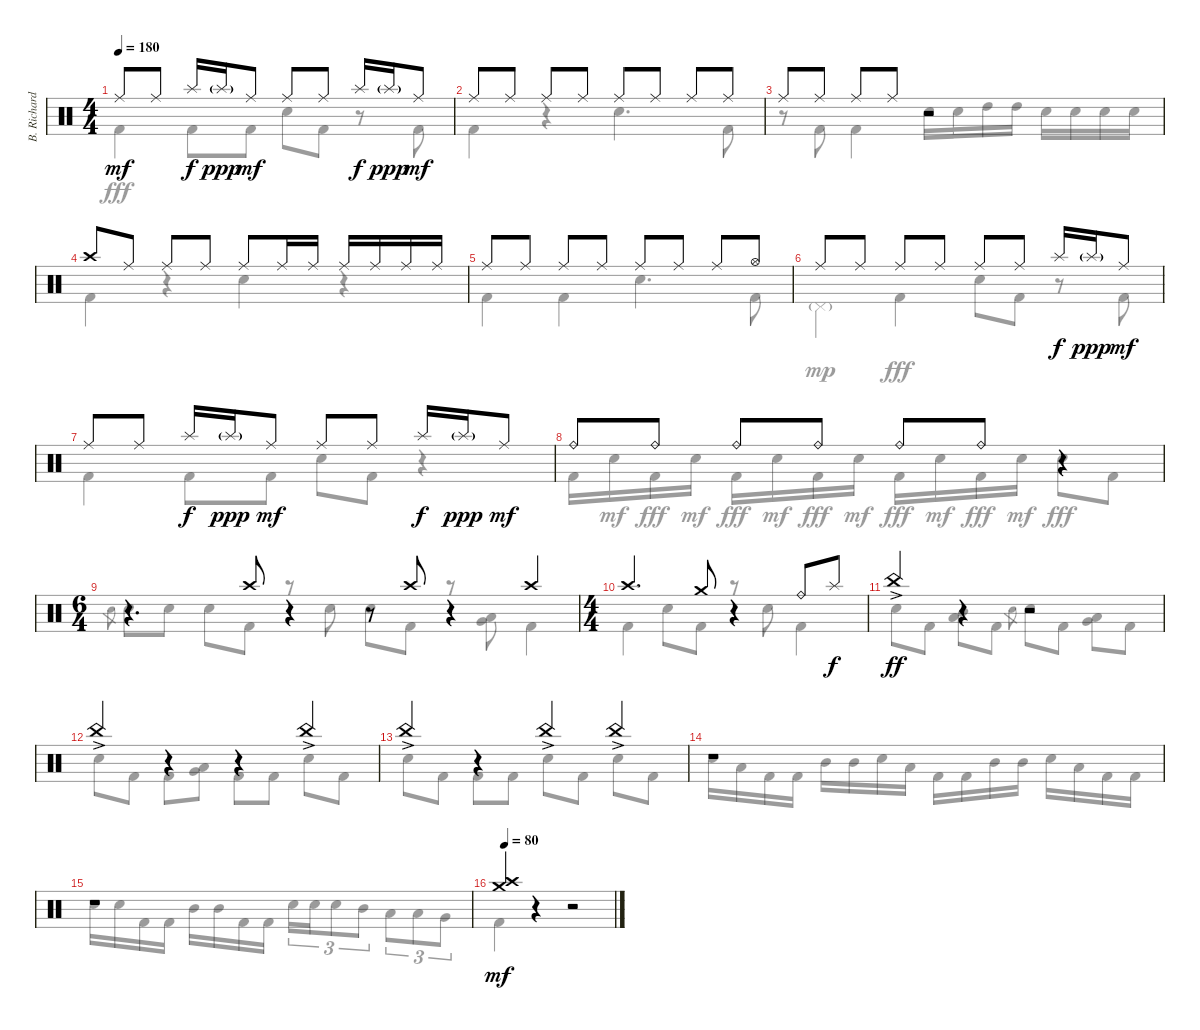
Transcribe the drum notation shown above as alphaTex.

\track ("B. Richardson Drums" "B. Richard") {instrument percussion}
\staff {score}
\articulation defaults
\voice
\ts (4 4)
\tempo 180
\clef neutral
\ks c "Ride (middle)".8{dy mf} "Ride (middle)".8 "Splash (hit)".16{dy f} "Splash (hit)"{g}.16{dy ppp} "Ride (middle)".8{dy mf} "Ride (middle)".8 "Ride (middle)".8 "Splash (hit)".16{dy f} "Splash (hit)"{g}.16{dy ppp} "Ride (middle)".8{dy mf}
|
"Ride (middle)".8 "Ride (middle)".8 "Ride (middle)".8 "Ride (middle)".8 "Ride (middle)".8 "Ride (middle)".8 "Ride (middle)".8 "Ride (middle)".8 |
"Ride (middle)".8 "Ride (middle)".8 "Ride (middle)".8 "Ride (middle)".8 r.2 |
"Crash high (hit)".8 "Ride (middle)".8 "Ride (middle)".8 "Ride (middle)".8 "Ride (middle)".8 "Ride (middle)".16 "Ride (middle)".16 "Ride (middle)".16 "Ride (middle)".16 "Ride (middle)".16 "Ride (middle)".16 |
"Ride (middle)".8 "Ride (middle)".8 "Ride (middle)".8 "Ride (middle)".8 "Ride (middle)".8 "Ride (middle)".8 "Ride (middle)".8 "Hi-Hat (open)".8 |
"Ride (middle)".8 "Ride (middle)".8 "Ride (middle)".8 "Ride (middle)".8 "Ride (middle)".8 "Ride (middle)".8 "Splash (hit)".16{dy f} "Splash (hit)"{g}.16{dy ppp} "Ride (middle)".8{dy mf} |
"Ride (middle)".8 "Ride (middle)".8 "Splash (hit)".16{dy f} "Splash (hit)"{g}.16{dy ppp} "Ride (middle)".8{dy mf} "Ride (middle)".8 "Ride (middle)".8 "Splash (hit)".16{dy f} "Splash (hit)"{g}.16{dy ppp} "Ride (middle)".8{dy mf} |
"Ride (bell)".8 "Ride (bell)".8 "Ride (bell)".8 "Ride (bell)".8 "Ride (bell)".8 "Ride (bell)".8 r.4 |
\ts (6 4)
r.4{d} "Crash high (hit)".8 r.4 r.8 "Crash high (hit)".8 r.4 "Crash high (hit)".4 |
\ts (4 4)
"Crash high (hit)".4{d} "Crash medium (hit)".8 r.4 "Ride (bell)".8 "Splash (hit)".8{dy f} |
"China (hit)"{ac}.4{dy ff} r.4 r.2 |
"China (hit)"{ac}.4 r.4 r.4 "China (hit)"{ac}.4 |
"China (hit)"{ac}.4 r.4 "China (hit)"{ac}.4 "China (hit)"{ac}.4 |
r.1 |
r.1 |
\tempo 80
("Crash high (hit)" "Crash medium (hit)").4{dy mf} r.4 r.2
\voice
\clef neutral
\ottava regular
\simile none
\ks c "Kick (hit) 2".4{dy fff} "Kick (hit) 2".8 "Kick (hit) 2".8 "Electric Snare (hit)".8 "Kick (hit) 2".8
r.8 "Kick (hit) 2".8 |
"Kick (hit) 2".4 r.4 "Electric Snare (hit)".4{d} "Kick (hit) 2".8 |
r.8 "Kick (hit) 2".8 "Kick (hit) 2".4 "Electric Snare (hit)".16 "Electric Snare (hit)".16 "High Tom (hit)".16 "High Tom (hit)".16 "Electric Snare (hit)".16 "Electric Snare (hit)".16 "Electric Snare (hit)".16 "Electric Snare (hit)".16 |
"Kick (hit) 2".4 r.4 "Electric Snare (hit)".4 r.4 |
"Kick (hit) 2".4 "Kick (hit) 2".4 "Electric Snare (hit)".4{d} "Kick (hit) 2".8 |
"Pedal Hi-Hat (hit)"{g}.4{dy mp} "Kick (hit) 2".4{dy fff} "Electric Snare (hit)".8 "Kick (hit) 2".8 r.8 "Kick (hit) 2".8 |
"Kick (hit) 2".4 "Kick (hit) 2".8 "Kick (hit) 2".8 "Electric Snare (hit)".8 "Kick (hit) 2".8 r.4 |
"Kick (hit) 2".16 "Electric Snare (hit)".16{dy mf} "Kick (hit) 2".16{dy fff} "Electric Snare (hit)".16{dy mf} "Kick (hit) 2".16{dy fff} "Electric Snare (hit)".16{dy mf} "Kick (hit) 2".16{dy fff} "Electric Snare (hit)".16{dy mf} "Kick (hit) 2".16{dy fff} "Electric Snare (hit)".16{dy mf} "Kick (hit) 2".16{dy fff} "Electric Snare (hit)".16{dy mf} "Electric Snare (hit)".8{dy fff} "Kick (hit) 2".8 |
"Electric Snare (hit)".8{gr} "Electric Snare (hit)".8 "Electric Snare (hit)".8 "Electric Snare (hit)".8 "Kick (hit) 2".8 r.8 "Electric Snare (hit)".8 "Electric Snare (hit)".8 "Kick (hit) 2".8 r.8 ("Low Tom (hit)" "Very Low Tom (hit)").8 "Kick (hit) 2".4 |
"Kick (hit) 2".4 "Electric Snare (hit)".8 "Kick (hit) 2".8 r.8 "Electric Snare (hit)".8 "Kick (hit) 2".4 |
"Electric Snare (hit)".8 "Kick (hit) 2".8 ("Mid Tom (hit)" "Low Tom (hit)").8 "Kick (hit) 2".8 "Electric Snare (hit)".8{gr} "Electric Snare (hit)".8 "Kick (hit) 2".8 ("Low Tom (hit)" "Very Low Tom (hit)").8 "Kick (hit) 2".8 |
"Electric Snare (hit)".8 "Kick (hit) 2".8 "Kick (hit) 2".8 ("Low Tom (hit)" "Very Low Tom (hit)").8 "Kick (hit) 2".8 "Kick (hit) 2".8 "Electric Snare (hit)".8 "Kick (hit) 2".8 |
"Electric Snare (hit)".8 "Kick (hit) 2".8 "Kick (hit) 2".8 "Kick (hit) 2".8 "Electric Snare (hit)".8 "Kick (hit) 2".8 "Electric Snare (hit)".8 "Kick (hit) 2".8 |
"Electric Snare (hit)".16 "Low Tom (hit)".16 "Kick (hit) 2".16 "Kick (hit) 2".16 "Mid Tom (hit)".16 "Mid Tom (hit)".16 "Electric Snare (hit)".16 "Low Tom (hit)".16 "Kick (hit) 2".16 "Kick (hit) 2".16 "Mid Tom (hit)".16 "Mid Tom (hit)".16 "Electric Snare (hit)".16 "Low Tom (hit)".16 "Kick (hit) 2".16 "Kick (hit) 2".16 |
"Electric Snare (hit)".16 "Electric Snare (hit)".16 "Kick (hit) 2".16 "Kick (hit) 2".16 "Mid Tom (hit)".16 "Mid Tom (hit)".16 "Kick (hit) 2".16 "Kick (hit) 2".16 "Electric Snare (hit)".16{tu (3 2)} "Electric Snare (hit)".16{tu (3 2)} "Electric Snare (hit)".8{tu (3 2)} "Mid Tom (hit)".8{tu (3 2)} "Low Tom (hit)".8{tu (3 2)} "Low Tom (hit)".8{tu (3 2)} "Very Low Tom (hit)".8{tu (3 2)} |
"Kick (hit) 2".4 r.4 r.2
